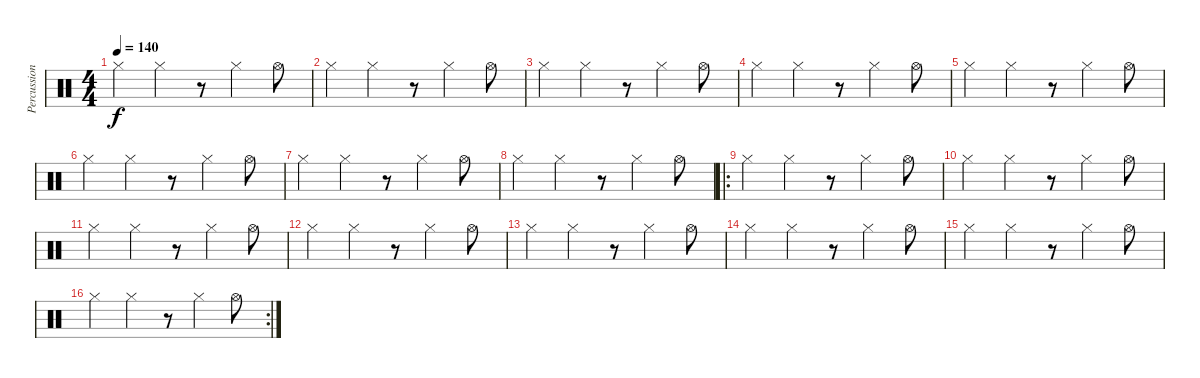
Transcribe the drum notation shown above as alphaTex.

\track ("Percussion" "Percussion") {instrument percussion}
\staff {score}
\articulation defaults
\ts (4 4)
\tempo 140
\clef neutral
\ks c "Hi-Hat (closed)".4{dy f} "Hi-Hat (closed)".4
r.8 "Hi-Hat (closed)".4 "Hi-Hat (open)".8 |
"Hi-Hat (closed)".4 "Hi-Hat (closed)".4 r.8 "Hi-Hat (closed)".4 "Hi-Hat (open)".8 |
"Hi-Hat (closed)".4 "Hi-Hat (closed)".4 r.8 "Hi-Hat (closed)".4 "Hi-Hat (open)".8 |
"Hi-Hat (closed)".4 "Hi-Hat (closed)".4 r.8 "Hi-Hat (closed)".4 "Hi-Hat (open)".8 |
"Hi-Hat (closed)".4 "Hi-Hat (closed)".4 r.8 "Hi-Hat (closed)".4 "Hi-Hat (open)".8 |
"Hi-Hat (closed)".4 "Hi-Hat (closed)".4 r.8 "Hi-Hat (closed)".4 "Hi-Hat (open)".8 |
"Hi-Hat (closed)".4 "Hi-Hat (closed)".4 r.8 "Hi-Hat (closed)".4 "Hi-Hat (open)".8 |
"Hi-Hat (closed)".4 "Hi-Hat (closed)".4 r.8 "Hi-Hat (closed)".4 "Hi-Hat (open)".8 |
\ro "Hi-Hat (closed)".4 "Hi-Hat (closed)".4
r.8 "Hi-Hat (closed)".4 "Hi-Hat (open)".8 |
"Hi-Hat (closed)".4 "Hi-Hat (closed)".4 r.8 "Hi-Hat (closed)".4 "Hi-Hat (open)".8 |
"Hi-Hat (closed)".4 "Hi-Hat (closed)".4 r.8 "Hi-Hat (closed)".4 "Hi-Hat (open)".8 |
"Hi-Hat (closed)".4 "Hi-Hat (closed)".4 r.8 "Hi-Hat (closed)".4 "Hi-Hat (open)".8 |
"Hi-Hat (closed)".4 "Hi-Hat (closed)".4 r.8 "Hi-Hat (closed)".4 "Hi-Hat (open)".8 |
"Hi-Hat (closed)".4 "Hi-Hat (closed)".4 r.8 "Hi-Hat (closed)".4 "Hi-Hat (open)".8 |
"Hi-Hat (closed)".4 "Hi-Hat (closed)".4 r.8 "Hi-Hat (closed)".4 "Hi-Hat (open)".8 |
\rc 2 "Hi-Hat (closed)".4 "Hi-Hat (closed)".4
r.8 "Hi-Hat (closed)".4 "Hi-Hat (open)".8
